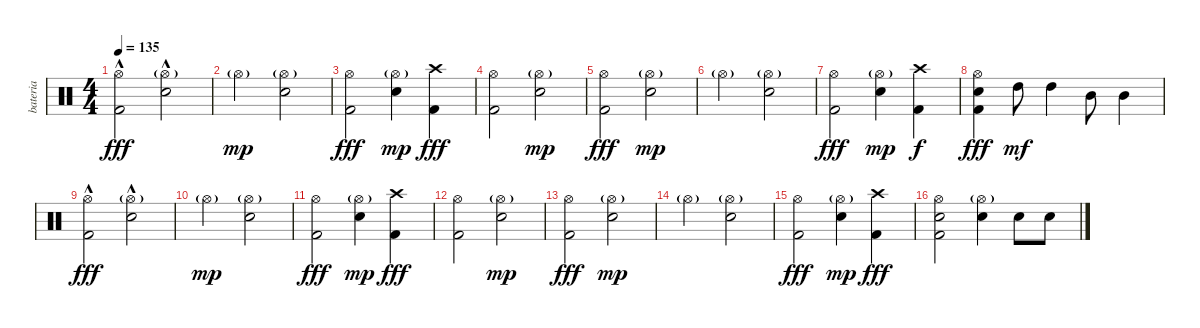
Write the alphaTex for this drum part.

\track ("bateria" "bateria") {instrument percussion}
\staff {score}
\articulation defaults
\ts (4 4)
\tempo 135
\clef neutral
\ks c
("Hi-Hat (open)" "Kick (hit) 2"{hac}).2{dy fff} ("Hi-Hat (open)"{g} "Snare (hit) 2"{hac}).2 |
"Hi-Hat (open)"{g}.2{dy mp} ("Hi-Hat (open)"{g} "Snare (hit) 2").2 |
("Hi-Hat (open)" "Kick (hit) 2").2{dy fff} ("Hi-Hat (open)"{g} "Snare (hit) 2").4{dy mp} ("Crash high (hit)" "Kick (hit) 2").4{dy fff} |
("Hi-Hat (open)" "Kick (hit) 2").2 ("Hi-Hat (open)"{g} "Snare (hit) 2").2{dy mp} |
("Hi-Hat (open)" "Kick (hit) 2").2{dy fff} ("Hi-Hat (open)"{g} "Snare (hit) 2").2{dy mp} |
"Hi-Hat (open)"{g}.2 ("Hi-Hat (open)"{g} "Snare (hit) 2").2 |
("Hi-Hat (open)" "Kick (hit) 2").2{dy fff} ("Hi-Hat (open)"{g} "Snare (hit) 2").4{dy mp} ("Crash high (hit)" "Kick (hit) 2").4{dy f} |
("Hi-Hat (open)" "Snare (hit) 2" "Kick (hit) 2").4{dy fff} "High Tom (hit)".8{dy mf} "High Tom (hit)".4 "Mid Tom (hit)".8 "Mid Tom (hit)".4 |
("Hi-Hat (open)" "Kick (hit) 2"{hac}).2{dy fff} ("Hi-Hat (open)"{g} "Snare (hit) 2"{hac}).2 |
"Hi-Hat (open)"{g}.2{dy mp} ("Hi-Hat (open)"{g} "Snare (hit) 2").2 |
("Hi-Hat (open)" "Kick (hit) 2").2{dy fff} ("Hi-Hat (open)"{g} "Snare (hit) 2").4{dy mp} ("Crash high (hit)" "Kick (hit) 2").4{dy fff} |
("Hi-Hat (open)" "Kick (hit) 2").2 ("Hi-Hat (open)"{g} "Snare (hit) 2").2{dy mp} |
("Hi-Hat (open)" "Kick (hit) 2").2{dy fff} ("Hi-Hat (open)"{g} "Snare (hit) 2").2{dy mp} |
"Hi-Hat (open)"{g}.2 ("Hi-Hat (open)"{g} "Snare (hit) 2").2 |
("Hi-Hat (open)" "Kick (hit) 2").2{dy fff} ("Hi-Hat (open)"{g} "Snare (hit) 2").4{dy mp} ("Crash high (hit)" "Kick (hit) 2").4{dy fff} |
("Hi-Hat (open)" "Snare (hit) 2" "Kick (hit) 2").2 ("Hi-Hat (open)"{g} "Snare (hit) 2").4 "Snare (hit) 2".8 "Snare (hit) 2".8
